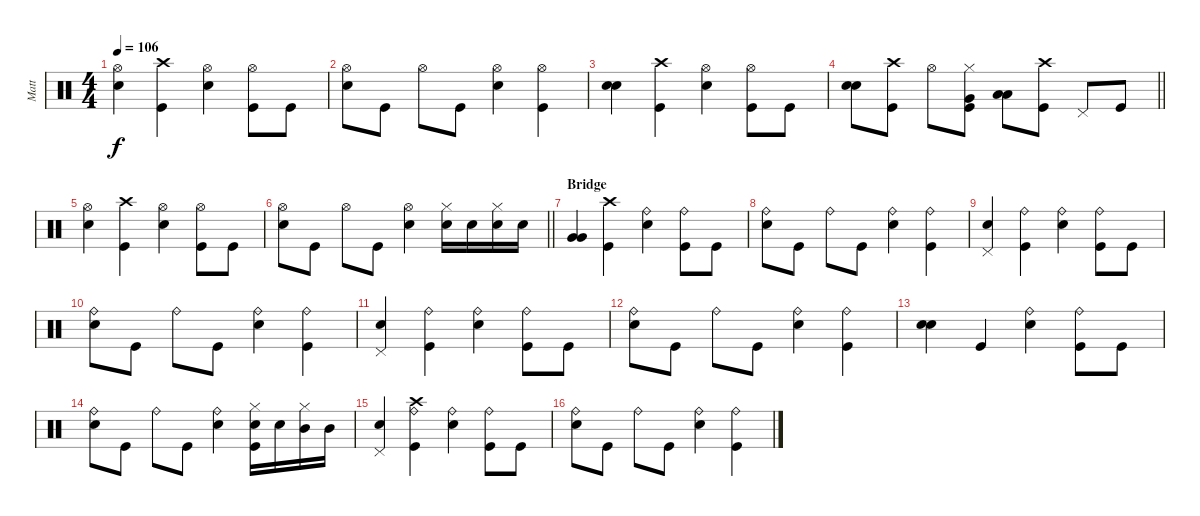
\track ("Matt" "Matt") {instrument percussion}
\staff {score}
\articulation defaults
\ts (4 4)
\tempo 106
\clef neutral
\ks c
("Electric Snare (hit)" "Hi-Hat (open)").4{dy f} ("Crash high (hit)" "Kick (hit)").4 ("Electric Snare (hit)" "Hi-Hat (open)").4 ("Hi-Hat (open)" "Kick (hit)").8 "Kick (hit)".8 |
("Electric Snare (hit)" "Hi-Hat (open)").8 "Kick (hit)".8 "Hi-Hat (open)".8 "Kick (hit)".8 ("Electric Snare (hit)" "Hi-Hat (open)").4 ("Hi-Hat (open)" "Kick (hit)").4 |
("Electric Snare (hit)" "Electric Snare (hit)").4 ("Crash high (hit)" "Kick (hit)").4 ("Electric Snare (hit)" "Hi-Hat (open)").4 ("Hi-Hat (open)" "Kick (hit)").8 "Kick (hit)".8 |
\barLineRight lightlight
("Electric Snare (hit)" "Electric Snare (hit)").8 ("Crash high (hit)" "Kick (hit)").8 "Hi-Hat (open)".8 ("Hi-Hat (closed)" "Very Low Tom (hit)" "Kick (hit)").8 ("Low Floor Tom (hit)" "Low Floor Tom (hit)").8 ("Crash high (hit)" "Kick (hit)").8 "Pedal Hi-Hat (hit)".8 "Kick (hit)".8 |
("Electric Snare (hit)" "Hi-Hat (open)").4 ("Crash high (hit)" "Kick (hit)").4 ("Electric Snare (hit)" "Hi-Hat (open)").4 ("Hi-Hat (open)" "Kick (hit)").8 "Kick (hit)".8 |
\barLineRight lightlight
("Electric Snare (hit)" "Hi-Hat (open)").8 "Kick (hit)".8 "Hi-Hat (open)".8 "Kick (hit)".8 ("Electric Snare (hit)" "Hi-Hat (open)").4 ("Electric Snare (hit)" "Hi-Hat (closed)").16 "Electric Snare (hit)".16 ("Electric Snare (hit)" "Hi-Hat (closed)").16 "Electric Snare (hit)".16 |
\section ("" "Bridge")
("Very Low Tom (hit)" "Very Low Tom (hit)").4 ("Crash high (hit)" "Kick (hit)").4 ("Electric Snare (hit)" "Ride (bell)").4 ("Ride (bell)" "Kick (hit)").8 "Kick (hit)".8 |
("Electric Snare (hit)" "Ride (bell)").8 "Kick (hit)".8 "Ride (bell)".8 "Kick (hit)".8 ("Electric Snare (hit)" "Ride (bell)").4 ("Ride (bell)" "Kick (hit)").4 |
("Electric Snare (hit)" "Pedal Hi-Hat (hit)").4 ("Ride (bell)" "Kick (hit)").4 ("Electric Snare (hit)" "Ride (bell)").4 ("Ride (bell)" "Kick (hit)").8 "Kick (hit)".8 |
("Electric Snare (hit)" "Ride (bell)").8 "Kick (hit)".8 "Ride (bell)".8 "Kick (hit)".8 ("Electric Snare (hit)" "Ride (bell)").4 ("Ride (bell)" "Kick (hit)").4 |
("Electric Snare (hit)" "Pedal Hi-Hat (hit)").4 ("Ride (bell)" "Kick (hit)").4 ("Electric Snare (hit)" "Ride (bell)").4 ("Ride (bell)" "Kick (hit)").8 "Kick (hit)".8 |
("Electric Snare (hit)" "Ride (bell)").8 "Kick (hit)".8 "Ride (bell)".8 "Kick (hit)".8 ("Electric Snare (hit)" "Ride (bell)").4 ("Ride (bell)" "Kick (hit)").4 |
("Electric Snare (hit)" "Electric Snare (hit)").4 "Kick (hit)".4 ("Electric Snare (hit)" "Ride (bell)").4 ("Ride (bell)" "Kick (hit)").8 "Kick (hit)".8 |
("Electric Snare (hit)" "Ride (bell)").8 "Kick (hit)".8 "Ride (bell)".8 "Kick (hit)".8 ("Electric Snare (hit)" "Ride (bell)").4 ("Hi-Hat (closed)" "Electric Snare (hit)" "Kick (hit)").16 "Electric Snare (hit)".16 ("Hi-Hat (closed)" "Mid Tom (hit)").16 "Mid Tom (hit)".16 |
("Electric Snare (hit)" "Pedal Hi-Hat (hit)").4 ("Crash high (hit)" "Ride (bell)" "Kick (hit)").4 ("Electric Snare (hit)" "Ride (bell)").4 ("Ride (bell)" "Kick (hit)").8 "Kick (hit)".8 |
("Electric Snare (hit)" "Ride (bell)").8 "Kick (hit)".8 "Ride (bell)".8 "Kick (hit)".8 ("Electric Snare (hit)" "Ride (bell)").4 ("Ride (bell)" "Kick (hit)").4
